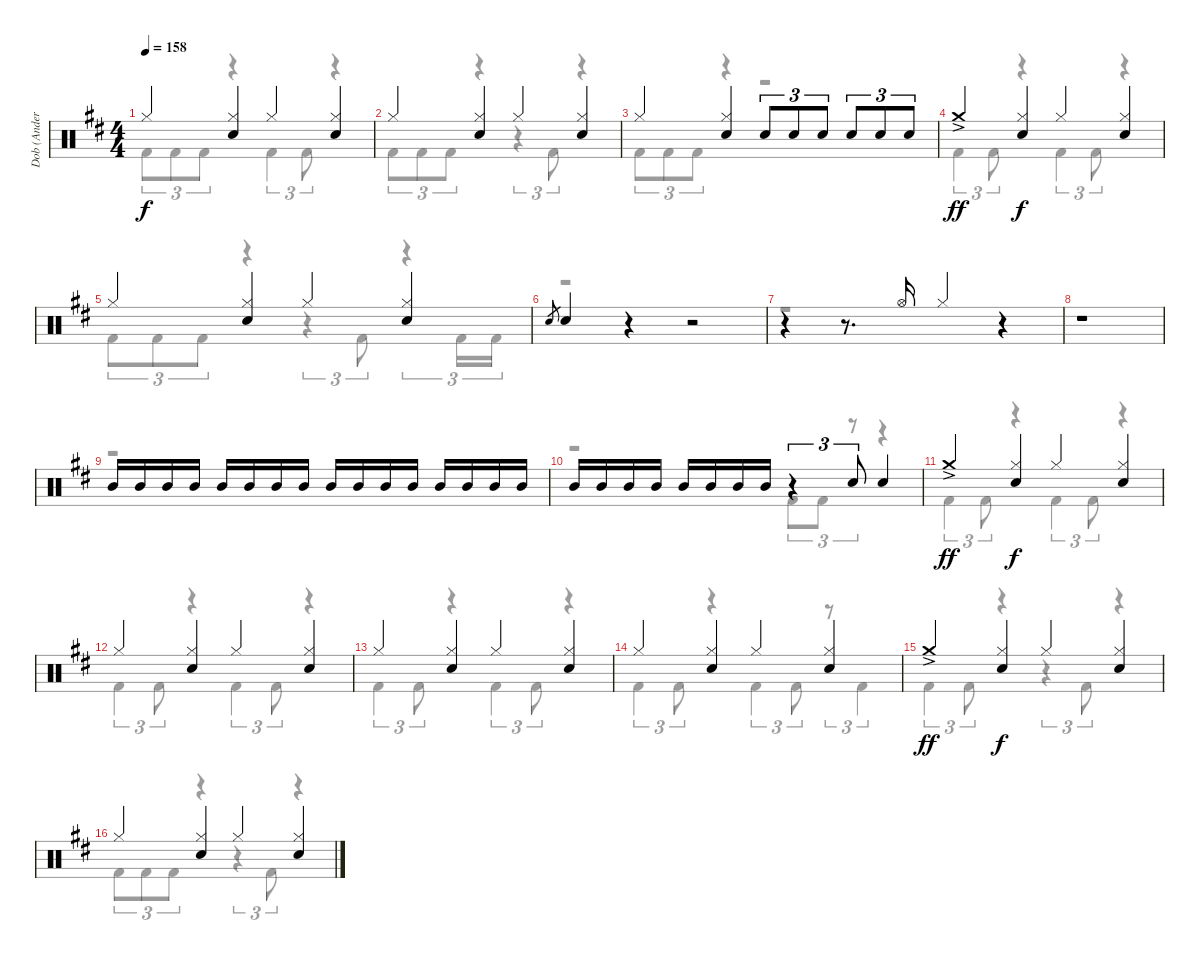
\track ("Dob (Anders Johansson)" "Dob (Ander") {instrument percussion}
\staff {score}
\articulation defaults
\voice
\ts (4 4)
\tempo 158
\clef neutral
\ks d "Hi-Hat (closed)".4{dy f}
("Hi-Hat (closed)" "Electric Snare (hit)").4 "Hi-Hat (closed)".4 ("Hi-Hat (closed)" "Electric Snare (hit)").4 |
"Hi-Hat (closed)".4 ("Hi-Hat (closed)" "Electric Snare (hit)").4 "Hi-Hat (closed)".4 ("Hi-Hat (closed)" "Electric Snare (hit)").4 |
"Hi-Hat (closed)".4 ("Hi-Hat (closed)" "Electric Snare (hit)").4 "Electric Snare (hit)".8{tu (3 2)} "Electric Snare (hit)".8{tu (3 2)} "Electric Snare (hit)".8{tu (3 2)} "Electric Snare (hit)".8{tu (3 2)} "Electric Snare (hit)".8{tu (3 2)} "Electric Snare (hit)".8{tu (3 2)} |
"Crash medium (hit)"{ac}.4{dy ff} ("Hi-Hat (closed)" "Electric Snare (hit)").4{dy f} "Hi-Hat (closed)".4 ("Hi-Hat (closed)" "Electric Snare (hit)").4 |
"Hi-Hat (closed)".4 ("Hi-Hat (closed)" "Electric Snare (hit)").4 "Hi-Hat (closed)".4 ("Hi-Hat (closed)" "Electric Snare (hit)").4 |
"Electric Snare (hit)"{h}.8{gr} "Electric Snare (hit)".4 r.4 r.2 |
r.4 r.8{d} "Hi-Hat (open)".16 "Hi-Hat (closed)".4 r.4 |
r.1 |
"Mid Tom (hit)".16 "Mid Tom (hit)".16 "Mid Tom (hit)".16 "Mid Tom (hit)".16 "Mid Tom (hit)".16 "Mid Tom (hit)".16 "Mid Tom (hit)".16 "Mid Tom (hit)".16 "Mid Tom (hit)".16 "Mid Tom (hit)".16 "Mid Tom (hit)".16 "Mid Tom (hit)".16 "Mid Tom (hit)".16 "Mid Tom (hit)".16 "Mid Tom (hit)".16 "Mid Tom (hit)".16 |
"Mid Tom (hit)".16 "Mid Tom (hit)".16 "Mid Tom (hit)".16 "Mid Tom (hit)".16 "Mid Tom (hit)".16 "Mid Tom (hit)".16 "Mid Tom (hit)".16 "Mid Tom (hit)".16 r.4{tu (3 2)} "Electric Snare (hit)".8{tu (3 2)} "Electric Snare (hit)".4 |
"Crash medium (hit)"{ac}.4{dy ff} ("Hi-Hat (closed)" "Electric Snare (hit)").4{dy f} "Hi-Hat (closed)".4 ("Hi-Hat (closed)" "Electric Snare (hit)").4 |
"Hi-Hat (closed)".4 ("Hi-Hat (closed)" "Electric Snare (hit)").4 "Hi-Hat (closed)".4 ("Hi-Hat (closed)" "Electric Snare (hit)").4 |
"Hi-Hat (closed)".4 ("Hi-Hat (closed)" "Electric Snare (hit)").4 "Hi-Hat (closed)".4 ("Hi-Hat (closed)" "Electric Snare (hit)").4 |
"Hi-Hat (closed)".4 ("Hi-Hat (closed)" "Electric Snare (hit)").4 "Hi-Hat (closed)".4 ("Hi-Hat (closed)" "Electric Snare (hit)").4 |
"Crash medium (hit)"{ac}.4{dy ff} ("Hi-Hat (closed)" "Electric Snare (hit)").4{dy f} "Hi-Hat (closed)".4 ("Hi-Hat (closed)" "Electric Snare (hit)").4 |
"Hi-Hat (closed)".4 ("Hi-Hat (closed)" "Electric Snare (hit)").4 "Hi-Hat (closed)".4 ("Hi-Hat (closed)" "Electric Snare (hit)").4
\voice
\clef neutral
\ottava regular
\simile none
\ks d "Kick (hit) 2".8{tu (3 2) dy f} "Kick (hit) 2".8{tu (3 2)} "Kick (hit) 2".8{tu (3 2)}
r.4 "Kick (hit) 2".4{tu (3 2)} "Kick (hit) 2".8{tu (3 2)} r.4 |
"Kick (hit) 2".8{tu (3 2)} "Kick (hit) 2".8{tu (3 2)} "Kick (hit) 2".8{tu (3 2)} r.4 r.4{tu (3 2)} "Kick (hit) 2".8{tu (3 2)} r.4 |
"Kick (hit) 2".8{tu (3 2)} "Kick (hit) 2".8{tu (3 2)} "Kick (hit) 2".8{tu (3 2)} r.4 r.2 |
"Kick (hit) 2".4{tu (3 2)} "Kick (hit) 2".8{tu (3 2)} r.4 "Kick (hit) 2".4{tu (3 2)} "Kick (hit) 2".8{tu (3 2)} r.4 |
"Kick (hit) 2".8{tu (3 2)} "Kick (hit) 2".8{tu (3 2)} "Kick (hit) 2".8{tu (3 2)} r.4 r.4{tu (3 2)} "Kick (hit) 2".8{tu (3 2)} r.4{tu (3 2)} "Kick (hit) 2".16{tu (3 2)} "Kick (hit) 2".16{tu (3 2)} |
r.1 |
r.1 |
r.1 |
r.1 |
r.2 "Kick (hit) 2".8{tu (3 2)} "Kick (hit) 2".8{tu (3 2)} r.8{tu (3 2)} r.4 |
"Kick (hit) 2".4{tu (3 2)} "Kick (hit) 2".8{tu (3 2)} r.4 "Kick (hit) 2".4{tu (3 2)} "Kick (hit) 2".8{tu (3 2)} r.4 |
"Kick (hit) 2".4{tu (3 2)} "Kick (hit) 2".8{tu (3 2)} r.4 "Kick (hit) 2".4{tu (3 2)} "Kick (hit) 2".8{tu (3 2)} r.4 |
"Kick (hit) 2".4{tu (3 2)} "Kick (hit) 2".8{tu (3 2)} r.4 "Kick (hit) 2".4{tu (3 2)} "Kick (hit) 2".8{tu (3 2)} r.4 |
"Kick (hit) 2".4{tu (3 2)} "Kick (hit) 2".8{tu (3 2)} r.4 "Kick (hit) 2".4{tu (3 2)} "Kick (hit) 2".8{tu (3 2)} r.8{tu (3 2)} "Kick (hit) 2".4{tu (3 2)} |
"Kick (hit) 2".4{tu (3 2)} "Kick (hit) 2".8{tu (3 2)} r.4 r.4{tu (3 2)} "Kick (hit) 2".8{tu (3 2)} r.4 |
"Kick (hit) 2".8{tu (3 2)} "Kick (hit) 2".8{tu (3 2)} "Kick (hit) 2".8{tu (3 2)} r.4 r.4{tu (3 2)} "Kick (hit) 2".8{tu (3 2)} r.4
